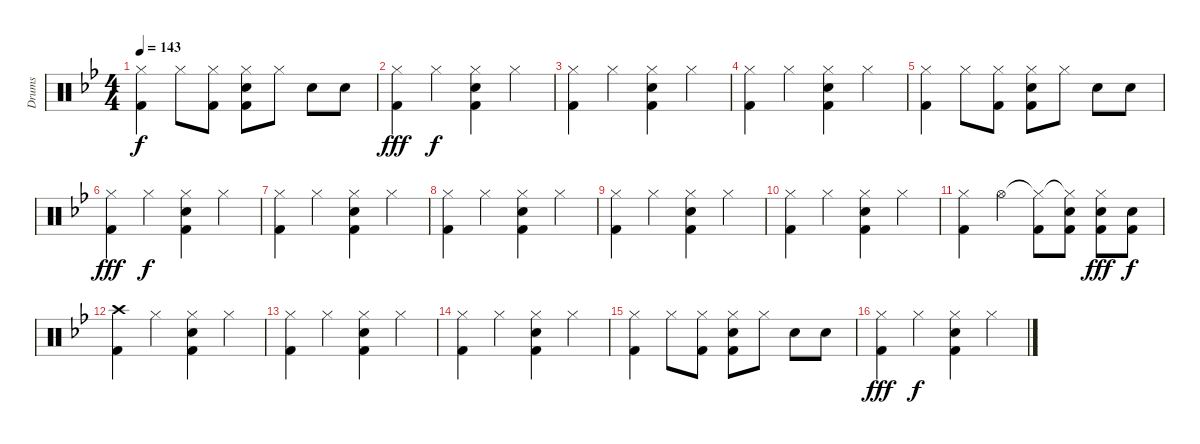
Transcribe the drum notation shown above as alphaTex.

\track ("Drums" "Drums") {instrument percussion}
\staff {score}
\articulation defaults
\ts (4 4)
\tempo 143
\clef neutral
\ks bb
("Hi-Hat (closed)" "Kick (hit) 2").4{dy f} "Hi-Hat (closed)".8 ("Hi-Hat (closed)" "Kick (hit) 2").8 ("Hi-Hat (closed)" "Snare (hit) 2" "Kick (hit) 2").8 "Hi-Hat (closed)".8 "Snare (hit) 2".8 "Snare (hit) 2".8 |
("Hi-Hat (closed)" "Kick (hit) 2").4{dy fff} "Hi-Hat (closed)".4{dy f} ("Hi-Hat (closed)" "Snare (hit) 2" "Kick (hit) 2").4 "Hi-Hat (closed)".4 |
("Hi-Hat (closed)" "Kick (hit) 2").4 "Hi-Hat (closed)".4 ("Hi-Hat (closed)" "Snare (hit) 2" "Kick (hit) 2").4 "Hi-Hat (closed)".4 |
("Hi-Hat (closed)" "Kick (hit) 2").4 "Hi-Hat (closed)".4 ("Hi-Hat (closed)" "Snare (hit) 2" "Kick (hit) 2").4 "Hi-Hat (closed)".4 |
("Hi-Hat (closed)" "Kick (hit) 2").4 "Hi-Hat (closed)".8 ("Hi-Hat (closed)" "Kick (hit) 2").8 ("Hi-Hat (closed)" "Snare (hit) 2" "Kick (hit) 2").8 "Hi-Hat (closed)".8 "Snare (hit) 2".8 "Snare (hit) 2".8 |
("Hi-Hat (closed)" "Kick (hit) 2").4{dy fff} "Hi-Hat (closed)".4{dy f} ("Hi-Hat (closed)" "Snare (hit) 2" "Kick (hit) 2").4 "Hi-Hat (closed)".4 |
("Hi-Hat (closed)" "Kick (hit) 2").4 "Hi-Hat (closed)".4 ("Hi-Hat (closed)" "Snare (hit) 2" "Kick (hit) 2").4 "Hi-Hat (closed)".4 |
("Hi-Hat (closed)" "Kick (hit) 2").4 "Hi-Hat (closed)".4 ("Hi-Hat (closed)" "Snare (hit) 2" "Kick (hit) 2").4 "Hi-Hat (closed)".4 |
("Hi-Hat (closed)" "Kick (hit) 2").4 "Hi-Hat (closed)".4 ("Hi-Hat (closed)" "Snare (hit) 2" "Kick (hit) 2").4 "Hi-Hat (closed)".4 |
("Hi-Hat (closed)" "Kick (hit) 2").4 "Hi-Hat (closed)".4 ("Hi-Hat (closed)" "Snare (hit) 2" "Kick (hit) 2").4 "Hi-Hat (closed)".4 |
("Hi-Hat (closed)" "Kick (hit) 2").4 "Hi-Hat (open)".4 ("Hi-Hat (closed)"{t} "Kick (hit) 2").8 ("Hi-Hat (closed)"{t} "Snare (hit) 2" "Kick (hit) 2").8 ("Hi-Hat (closed)" "Snare (hit) 2" "Kick (hit) 2").8{dy fff} ("Snare (hit) 2" "Kick (hit) 2").8{dy f} |
("Crash high (hit)" "Kick (hit) 2").4 "Hi-Hat (closed)".4 ("Hi-Hat (closed)" "Snare (hit) 2" "Kick (hit) 2").4 "Hi-Hat (closed)".4 |
("Hi-Hat (closed)" "Kick (hit) 2").4 "Hi-Hat (closed)".4 ("Hi-Hat (closed)" "Snare (hit) 2" "Kick (hit) 2").4 "Hi-Hat (closed)".4 |
("Hi-Hat (closed)" "Kick (hit) 2").4 "Hi-Hat (closed)".4 ("Hi-Hat (closed)" "Snare (hit) 2" "Kick (hit) 2").4 "Hi-Hat (closed)".4 |
("Hi-Hat (closed)" "Kick (hit) 2").4 "Hi-Hat (closed)".8 ("Hi-Hat (closed)" "Kick (hit) 2").8 ("Hi-Hat (closed)" "Snare (hit) 2" "Kick (hit) 2").8 "Hi-Hat (closed)".8 "Snare (hit) 2".8 "Snare (hit) 2".8 |
("Hi-Hat (closed)" "Kick (hit) 2").4{dy fff} "Hi-Hat (closed)".4{dy f} ("Hi-Hat (closed)" "Snare (hit) 2" "Kick (hit) 2").4 "Hi-Hat (closed)".4
